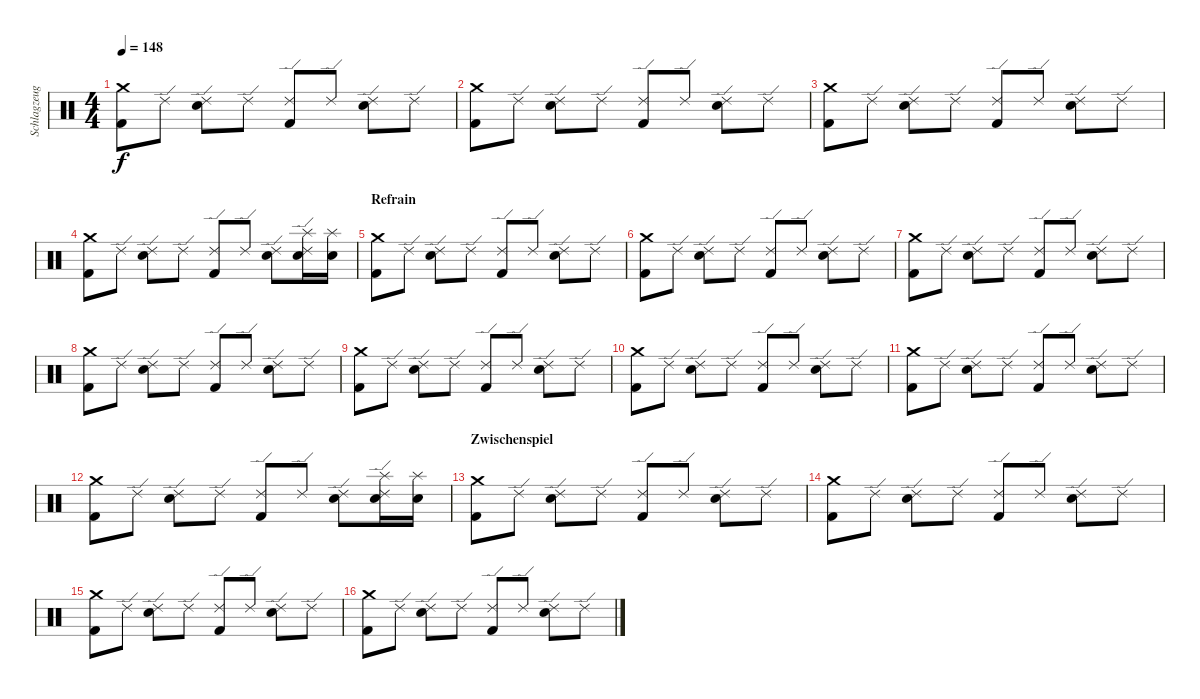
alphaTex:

\track ("Schlagzeug" "Schlagzeug") {instrument percussion}
\staff {score}
\articulation defaults
\ts (4 4)
\tempo 148
\clef neutral
\ks c
("Crash medium (hit)" "Kick (hit) 2").8{dy f} "Ride (edge) 2".8 ("Ride (edge) 2" "Snare (hit) 2").8 "Ride (edge) 2".8 ("Ride (edge) 2" "Kick (hit) 2").8 "Ride (edge) 2".8 ("Ride (edge) 2" "Snare (hit) 2").8 "Ride (edge) 2".8 |
("Crash medium (hit)" "Kick (hit) 2").8 "Ride (edge) 2".8 ("Ride (edge) 2" "Snare (hit) 2").8 "Ride (edge) 2".8 ("Ride (edge) 2" "Kick (hit) 2").8 "Ride (edge) 2".8 ("Ride (edge) 2" "Snare (hit) 2").8 "Ride (edge) 2".8 |
("Crash medium (hit)" "Kick (hit) 2").8 "Ride (edge) 2".8 ("Ride (edge) 2" "Snare (hit) 2").8 "Ride (edge) 2".8 ("Ride (edge) 2" "Kick (hit) 2").8 "Ride (edge) 2".8 ("Ride (edge) 2" "Snare (hit) 2").8 "Ride (edge) 2".8 |
("Crash medium (hit)" "Kick (hit) 2").8 "Ride (edge) 2".8 ("Ride (edge) 2" "Snare (hit) 2").8 "Ride (edge) 2".8 ("Ride (edge) 2" "Kick (hit) 2").8 "Ride (edge) 2".8 ("Ride (edge) 2" "Snare (hit) 2").8 ("Splash (hit)" "Snare (hit) 2" "Ride (edge) 2").16 ("Splash (hit)" "Snare (hit) 2").16 |
\section ("" "Refrain")
("Crash medium (hit)" "Kick (hit) 2").8 "Ride (edge) 2".8 ("Ride (edge) 2" "Snare (hit) 2").8 "Ride (edge) 2".8 ("Ride (edge) 2" "Kick (hit) 2").8 "Ride (edge) 2".8 ("Ride (edge) 2" "Snare (hit) 2").8 "Ride (edge) 2".8 |
("Crash medium (hit)" "Kick (hit) 2").8 "Ride (edge) 2".8 ("Ride (edge) 2" "Snare (hit) 2").8 "Ride (edge) 2".8 ("Ride (edge) 2" "Kick (hit) 2").8 "Ride (edge) 2".8 ("Ride (edge) 2" "Snare (hit) 2").8 "Ride (edge) 2".8 |
("Crash medium (hit)" "Kick (hit) 2").8 "Ride (edge) 2".8 ("Ride (edge) 2" "Snare (hit) 2").8 "Ride (edge) 2".8 ("Ride (edge) 2" "Kick (hit) 2").8 "Ride (edge) 2".8 ("Ride (edge) 2" "Snare (hit) 2").8 "Ride (edge) 2".8 |
("Crash medium (hit)" "Kick (hit) 2").8 "Ride (edge) 2".8 ("Ride (edge) 2" "Snare (hit) 2").8 "Ride (edge) 2".8 ("Ride (edge) 2" "Kick (hit) 2").8 "Ride (edge) 2".8 ("Ride (edge) 2" "Snare (hit) 2").8 "Ride (edge) 2".8 |
("Crash medium (hit)" "Kick (hit) 2").8 "Ride (edge) 2".8 ("Ride (edge) 2" "Snare (hit) 2").8 "Ride (edge) 2".8 ("Ride (edge) 2" "Kick (hit) 2").8 "Ride (edge) 2".8 ("Ride (edge) 2" "Snare (hit) 2").8 "Ride (edge) 2".8 |
("Crash medium (hit)" "Kick (hit) 2").8 "Ride (edge) 2".8 ("Ride (edge) 2" "Snare (hit) 2").8 "Ride (edge) 2".8 ("Ride (edge) 2" "Kick (hit) 2").8 "Ride (edge) 2".8 ("Ride (edge) 2" "Snare (hit) 2").8 "Ride (edge) 2".8 |
("Crash medium (hit)" "Kick (hit) 2").8 "Ride (edge) 2".8 ("Ride (edge) 2" "Snare (hit) 2").8 "Ride (edge) 2".8 ("Ride (edge) 2" "Kick (hit) 2").8 "Ride (edge) 2".8 ("Ride (edge) 2" "Snare (hit) 2").8 "Ride (edge) 2".8 |
("Crash medium (hit)" "Kick (hit) 2").8 "Ride (edge) 2".8 ("Ride (edge) 2" "Snare (hit) 2").8 "Ride (edge) 2".8 ("Ride (edge) 2" "Kick (hit) 2").8 "Ride (edge) 2".8 ("Ride (edge) 2" "Snare (hit) 2").8 ("Splash (hit)" "Snare (hit) 2" "Ride (edge) 2").16 ("Splash (hit)" "Snare (hit) 2").16 |
\section ("" "Zwischenspiel")
("Crash medium (hit)" "Kick (hit) 2").8 "Ride (edge) 2".8 ("Ride (edge) 2" "Snare (hit) 2").8 "Ride (edge) 2".8 ("Ride (edge) 2" "Kick (hit) 2").8 "Ride (edge) 2".8 ("Ride (edge) 2" "Snare (hit) 2").8 "Ride (edge) 2".8 |
("Crash medium (hit)" "Kick (hit) 2").8 "Ride (edge) 2".8 ("Ride (edge) 2" "Snare (hit) 2").8 "Ride (edge) 2".8 ("Ride (edge) 2" "Kick (hit) 2").8 "Ride (edge) 2".8 ("Ride (edge) 2" "Snare (hit) 2").8 "Ride (edge) 2".8 |
("Crash medium (hit)" "Kick (hit) 2").8 "Ride (edge) 2".8 ("Ride (edge) 2" "Snare (hit) 2").8 "Ride (edge) 2".8 ("Ride (edge) 2" "Kick (hit) 2").8 "Ride (edge) 2".8 ("Ride (edge) 2" "Snare (hit) 2").8 "Ride (edge) 2".8 |
("Crash medium (hit)" "Kick (hit) 2").8 "Ride (edge) 2".8 ("Ride (edge) 2" "Snare (hit) 2").8 "Ride (edge) 2".8 ("Ride (edge) 2" "Kick (hit) 2").8 "Ride (edge) 2".8 ("Ride (edge) 2" "Snare (hit) 2").8 "Ride (edge) 2".8
